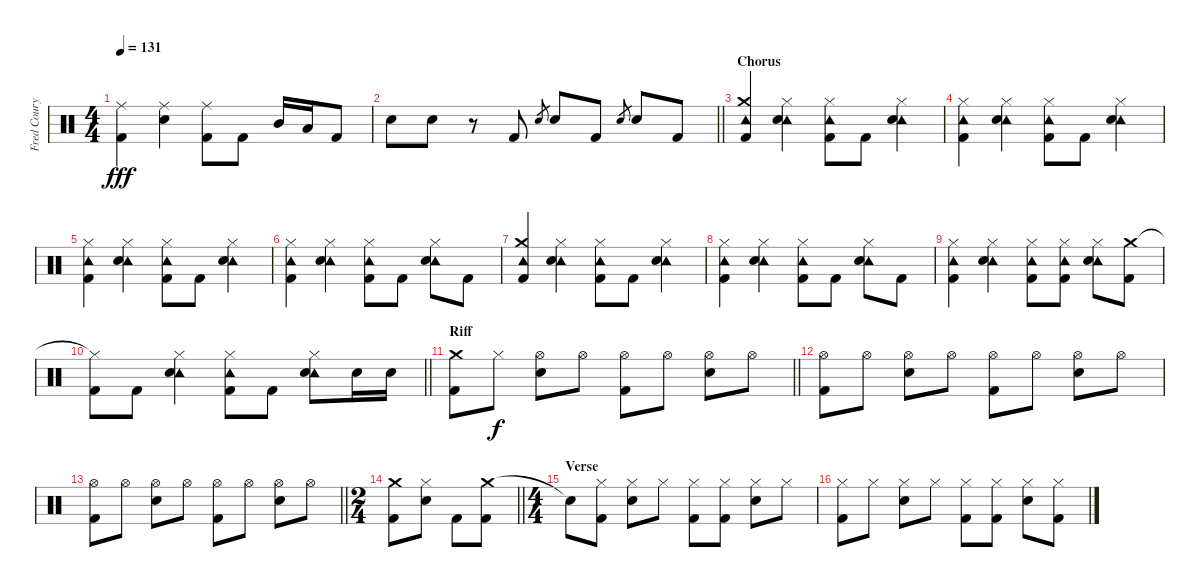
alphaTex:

\track ("Fred Coury - Drums" "Fred Coury") {instrument percussion}
\staff {score}
\articulation defaults
\ts (4 4)
\tempo 131
\clef neutral
\ks c
("Ride (middle)" "Kick (hit) 2").4{dy fff} ("Ride (middle)" "Snare (hit) 2").4 ("Ride (middle)" "Kick (hit) 2").8 "Kick (hit) 2".8 "Mid Tom (hit)".16 "Low Tom (hit)".16 "Kick (hit) 2".8 |
\barLineRight lightlight "Snare (hit) 2".8 "Snare (hit) 2".8
r.8 "Kick (hit) 2".8 "Snare (hit) 2".8{gr} "Snare (hit) 2".8 "Kick (hit) 2".8 "Snare (hit) 2".8{gr} "Snare (hit) 2".8 "Kick (hit) 2".8 |
\section ("" "Chorus")
("Crash medium (hit)" "Tambourine (hit)" "Kick (hit) 2").4 ("Hi-Hat (closed)" "Tambourine (hit)" "Snare (hit) 2").4 ("Hi-Hat (closed)" "Tambourine (hit)" "Kick (hit) 2").8 "Kick (hit) 2".8 ("Hi-Hat (closed)" "Tambourine (hit)" "Snare (hit) 2").4 |
("Hi-Hat (closed)" "Tambourine (hit)" "Kick (hit) 2").4 ("Hi-Hat (closed)" "Tambourine (hit)" "Snare (hit) 2").4 ("Hi-Hat (closed)" "Tambourine (hit)" "Kick (hit) 2").8 "Kick (hit) 2".8 ("Hi-Hat (closed)" "Tambourine (hit)" "Snare (hit) 2").4 |
("Hi-Hat (closed)" "Tambourine (hit)" "Kick (hit) 2").4 ("Hi-Hat (closed)" "Tambourine (hit)" "Snare (hit) 2").4 ("Hi-Hat (closed)" "Tambourine (hit)" "Kick (hit) 2").8 "Kick (hit) 2".8 ("Hi-Hat (closed)" "Tambourine (hit)" "Snare (hit) 2").4 |
("Hi-Hat (closed)" "Tambourine (hit)" "Kick (hit) 2").4 ("Hi-Hat (closed)" "Tambourine (hit)" "Snare (hit) 2").4 ("Hi-Hat (closed)" "Tambourine (hit)" "Kick (hit) 2").8 "Kick (hit) 2".8 ("Hi-Hat (closed)" "Tambourine (hit)" "Snare (hit) 2").8 "Kick (hit) 2".8 |
("Crash medium (hit)" "Tambourine (hit)" "Kick (hit) 2").4 ("Hi-Hat (closed)" "Tambourine (hit)" "Snare (hit) 2").4 ("Hi-Hat (closed)" "Tambourine (hit)" "Kick (hit) 2").8 "Kick (hit) 2".8 ("Hi-Hat (closed)" "Tambourine (hit)" "Snare (hit) 2").4 |
("Hi-Hat (closed)" "Tambourine (hit)" "Kick (hit) 2").4 ("Hi-Hat (closed)" "Tambourine (hit)" "Snare (hit) 2").4 ("Hi-Hat (closed)" "Tambourine (hit)" "Kick (hit) 2").8 "Kick (hit) 2".8 ("Hi-Hat (closed)" "Tambourine (hit)" "Snare (hit) 2").8 "Kick (hit) 2".8 |
("Hi-Hat (closed)" "Tambourine (hit)" "Kick (hit) 2").4 ("Hi-Hat (closed)" "Tambourine (hit)" "Snare (hit) 2").4 ("Hi-Hat (closed)" "Tambourine (hit)" "Kick (hit) 2").8 ("Hi-Hat (closed)" "Tambourine (hit)" "Kick (hit) 2").8 ("Hi-Hat (closed)" "Tambourine (hit)" "Snare (hit) 2").8 ("Crash medium (hit)" "Kick (hit) 2").8 |
\barLineRight lightlight
("Hi-Hat (closed)"{t} "Kick (hit) 2").8 "Kick (hit) 2".8 ("Hi-Hat (closed)" "Tambourine (hit)" "Snare (hit) 2").4 ("Hi-Hat (closed)" "Tambourine (hit)" "Kick (hit) 2").8 "Kick (hit) 2".8 ("Hi-Hat (closed)" "Tambourine (hit)" "Snare (hit) 2").8 "Snare (hit) 2".16 "Snare (hit) 2".16 |
\section ("" "Riff")
\barLineRight lightlight
("Crash medium (hit)" "Kick (hit) 2").8 "Hi-Hat (closed)".8{dy f} ("Hi-Hat (open)" "Snare (hit) 2").8 "Hi-Hat (open)".8 ("Hi-Hat (open)" "Kick (hit) 2").8 "Hi-Hat (open)".8 ("Hi-Hat (open)" "Snare (hit) 2").8 "Hi-Hat (open)".8 |
("Hi-Hat (open)" "Kick (hit) 2").8 "Hi-Hat (open)".8 ("Hi-Hat (open)" "Snare (hit) 2").8 "Hi-Hat (open)".8 ("Hi-Hat (open)" "Kick (hit) 2").8 "Hi-Hat (open)".8 ("Hi-Hat (open)" "Snare (hit) 2").8 "Hi-Hat (open)".8 |
\barLineRight lightlight
("Hi-Hat (open)" "Kick (hit) 2").8 "Hi-Hat (open)".8 ("Hi-Hat (open)" "Snare (hit) 2").8 "Hi-Hat (open)".8 ("Hi-Hat (open)" "Kick (hit) 2").8 "Hi-Hat (open)".8 ("Hi-Hat (open)" "Snare (hit) 2").8 "Hi-Hat (open)".8 |
\ts (2 4)
\barLineRight lightlight
("Crash medium (hit)" "Kick (hit) 2").8 ("Hi-Hat (closed)" "Snare (hit) 2").8 "Kick (hit) 2".8 ("Crash medium (hit)" "Kick (hit) 2").8 |
\ts (4 4)
\section ("" "Verse")
"Snare (hit)"{t}.8 ("Hi-Hat (closed)" "Kick (hit) 2").8 ("Hi-Hat (closed)" "Snare (hit) 2").8 "Hi-Hat (closed)".8 ("Hi-Hat (closed)" "Kick (hit) 2").8 ("Hi-Hat (closed)" "Kick (hit) 2").8 ("Hi-Hat (closed)" "Snare (hit) 2").8 "Hi-Hat (closed)".8 |
("Hi-Hat (closed)" "Kick (hit) 2").8 "Hi-Hat (closed)".8 ("Hi-Hat (closed)" "Snare (hit) 2").8 "Hi-Hat (closed)".8 ("Hi-Hat (closed)" "Kick (hit) 2").8 ("Hi-Hat (closed)" "Kick (hit) 2").8 ("Hi-Hat (closed)" "Snare (hit) 2").8 ("Hi-Hat (closed)" "Kick (hit) 2").8
